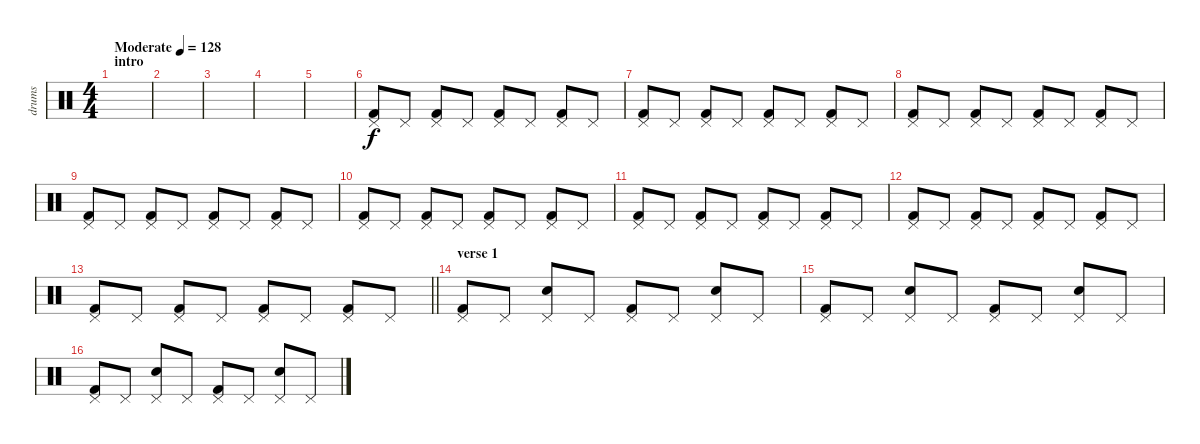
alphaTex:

\track ("drums" "drums") {instrument percussion}
\staff {score}
\articulation defaults
\ts (4 4)
\section ("" "intro")
\tempo (128 "Moderate")
\clef neutral
\ks c
|
|
|
|
|
("Kick (hit) 2" "Pedal Hi-Hat (hit)").8 "Pedal Hi-Hat (hit)".8 ("Kick (hit) 2" "Pedal Hi-Hat (hit)").8 "Pedal Hi-Hat (hit)".8 ("Kick (hit) 2" "Pedal Hi-Hat (hit)").8 "Pedal Hi-Hat (hit)".8 ("Kick (hit) 2" "Pedal Hi-Hat (hit)").8 "Pedal Hi-Hat (hit)".8 |
("Kick (hit) 2" "Pedal Hi-Hat (hit)").8 "Pedal Hi-Hat (hit)".8 ("Kick (hit) 2" "Pedal Hi-Hat (hit)").8 "Pedal Hi-Hat (hit)".8 ("Kick (hit) 2" "Pedal Hi-Hat (hit)").8 "Pedal Hi-Hat (hit)".8 ("Kick (hit) 2" "Pedal Hi-Hat (hit)").8 "Pedal Hi-Hat (hit)".8 |
("Kick (hit) 2" "Pedal Hi-Hat (hit)").8 "Pedal Hi-Hat (hit)".8 ("Kick (hit) 2" "Pedal Hi-Hat (hit)").8 "Pedal Hi-Hat (hit)".8 ("Kick (hit) 2" "Pedal Hi-Hat (hit)").8 "Pedal Hi-Hat (hit)".8 ("Kick (hit) 2" "Pedal Hi-Hat (hit)").8 "Pedal Hi-Hat (hit)".8 |
("Kick (hit) 2" "Pedal Hi-Hat (hit)").8 "Pedal Hi-Hat (hit)".8 ("Kick (hit) 2" "Pedal Hi-Hat (hit)").8 "Pedal Hi-Hat (hit)".8 ("Kick (hit) 2" "Pedal Hi-Hat (hit)").8 "Pedal Hi-Hat (hit)".8 ("Kick (hit) 2" "Pedal Hi-Hat (hit)").8 "Pedal Hi-Hat (hit)".8 |
("Kick (hit) 2" "Pedal Hi-Hat (hit)").8 "Pedal Hi-Hat (hit)".8 ("Kick (hit) 2" "Pedal Hi-Hat (hit)").8 "Pedal Hi-Hat (hit)".8 ("Kick (hit) 2" "Pedal Hi-Hat (hit)").8 "Pedal Hi-Hat (hit)".8 ("Kick (hit) 2" "Pedal Hi-Hat (hit)").8 "Pedal Hi-Hat (hit)".8 |
("Kick (hit) 2" "Pedal Hi-Hat (hit)").8 "Pedal Hi-Hat (hit)".8 ("Kick (hit) 2" "Pedal Hi-Hat (hit)").8 "Pedal Hi-Hat (hit)".8 ("Kick (hit) 2" "Pedal Hi-Hat (hit)").8 "Pedal Hi-Hat (hit)".8 ("Kick (hit) 2" "Pedal Hi-Hat (hit)").8 "Pedal Hi-Hat (hit)".8 |
("Kick (hit) 2" "Pedal Hi-Hat (hit)").8 "Pedal Hi-Hat (hit)".8 ("Kick (hit) 2" "Pedal Hi-Hat (hit)").8 "Pedal Hi-Hat (hit)".8 ("Kick (hit) 2" "Pedal Hi-Hat (hit)").8 "Pedal Hi-Hat (hit)".8 ("Kick (hit) 2" "Pedal Hi-Hat (hit)").8 "Pedal Hi-Hat (hit)".8 |
\barLineRight lightlight
("Kick (hit) 2" "Pedal Hi-Hat (hit)").8 "Pedal Hi-Hat (hit)".8 ("Kick (hit) 2" "Pedal Hi-Hat (hit)").8 "Pedal Hi-Hat (hit)".8 ("Kick (hit) 2" "Pedal Hi-Hat (hit)").8 "Pedal Hi-Hat (hit)".8 ("Kick (hit) 2" "Pedal Hi-Hat (hit)").8 "Pedal Hi-Hat (hit)".8 |
\section ("" "verse 1")
("Kick (hit) 2" "Pedal Hi-Hat (hit)").8 "Pedal Hi-Hat (hit)".8 ("Electric Snare (hit)" "Pedal Hi-Hat (hit)").8 "Pedal Hi-Hat (hit)".8 ("Kick (hit) 2" "Pedal Hi-Hat (hit)").8 "Pedal Hi-Hat (hit)".8 ("Electric Snare (hit)" "Pedal Hi-Hat (hit)").8 "Pedal Hi-Hat (hit)".8 |
("Kick (hit) 2" "Pedal Hi-Hat (hit)").8 "Pedal Hi-Hat (hit)".8 ("Electric Snare (hit)" "Pedal Hi-Hat (hit)").8 "Pedal Hi-Hat (hit)".8 ("Kick (hit) 2" "Pedal Hi-Hat (hit)").8 "Pedal Hi-Hat (hit)".8 ("Electric Snare (hit)" "Pedal Hi-Hat (hit)").8 "Pedal Hi-Hat (hit)".8 |
("Kick (hit) 2" "Pedal Hi-Hat (hit)").8 "Pedal Hi-Hat (hit)".8 ("Electric Snare (hit)" "Pedal Hi-Hat (hit)").8 "Pedal Hi-Hat (hit)".8 ("Kick (hit) 2" "Pedal Hi-Hat (hit)").8 "Pedal Hi-Hat (hit)".8 ("Electric Snare (hit)" "Pedal Hi-Hat (hit)").8 "Pedal Hi-Hat (hit)".8
